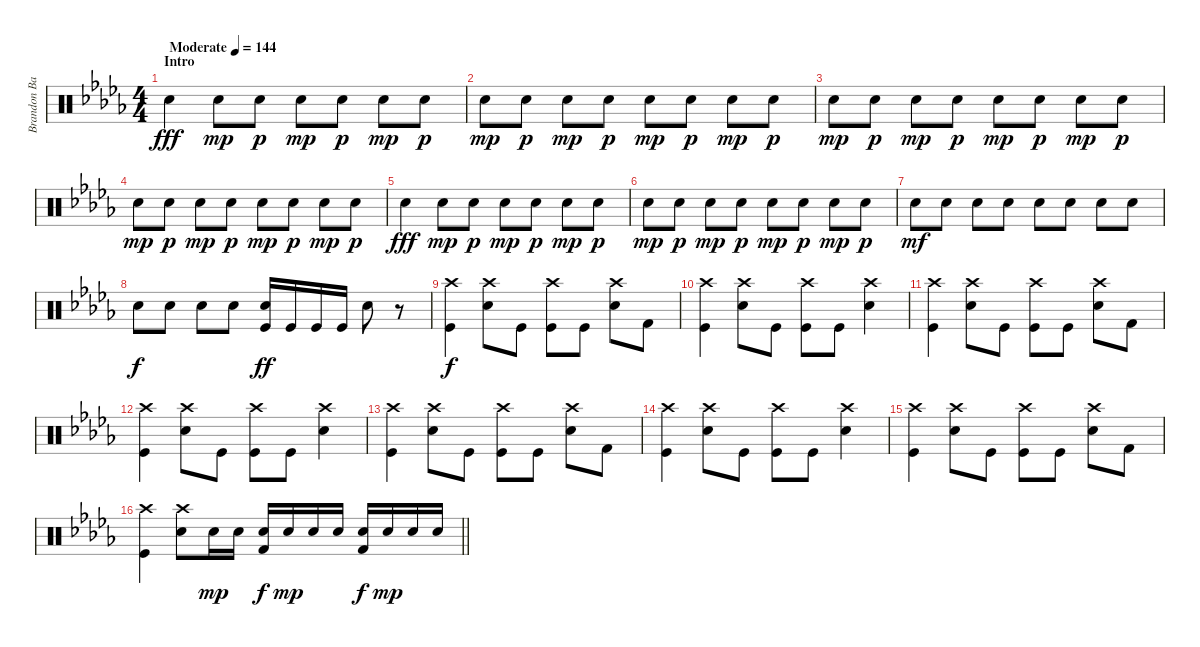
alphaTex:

\track ("Brandon Barnes - Drums" "Brandon Ba") {instrument percussion}
\staff {score}
\articulation defaults
\ts (4 4)
\section ("" "Intro")
\tempo (144 "Moderate")
\clef neutral
\ks db "Snare (hit) 2".4{dy fff} "Snare (hit) 2".8{dy mp} "Snare (hit) 2".8{dy p} "Snare (hit) 2".8{dy mp} "Snare (hit) 2".8{dy p} "Snare (hit) 2".8{dy mp} "Snare (hit) 2".8{dy p}
|
"Snare (hit) 2".8{dy mp} "Snare (hit) 2".8{dy p} "Snare (hit) 2".8{dy mp} "Snare (hit) 2".8{dy p} "Snare (hit) 2".8{dy mp} "Snare (hit) 2".8{dy p} "Snare (hit) 2".8{dy mp} "Snare (hit) 2".8{dy p} |
"Snare (hit) 2".8{dy mp} "Snare (hit) 2".8{dy p} "Snare (hit) 2".8{dy mp} "Snare (hit) 2".8{dy p} "Snare (hit) 2".8{dy mp} "Snare (hit) 2".8{dy p} "Snare (hit) 2".8{dy mp} "Snare (hit) 2".8{dy p} |
"Snare (hit) 2".8{dy mp} "Snare (hit) 2".8{dy p} "Snare (hit) 2".8{dy mp} "Snare (hit) 2".8{dy p} "Snare (hit) 2".8{dy mp} "Snare (hit) 2".8{dy p} "Snare (hit) 2".8{dy mp} "Snare (hit) 2".8{dy p} |
"Snare (hit) 2".4{dy fff} "Snare (hit) 2".8{dy mp} "Snare (hit) 2".8{dy p} "Snare (hit) 2".8{dy mp} "Snare (hit) 2".8{dy p} "Snare (hit) 2".8{dy mp} "Snare (hit) 2".8{dy p} |
"Snare (hit) 2".8{dy mp} "Snare (hit) 2".8{dy p} "Snare (hit) 2".8{dy mp} "Snare (hit) 2".8{dy p} "Snare (hit) 2".8{dy mp} "Snare (hit) 2".8{dy p} "Snare (hit) 2".8{dy mp} "Snare (hit) 2".8{dy p} |
"Snare (hit) 2".8{dy mf} "Snare (hit) 2".8 "Snare (hit) 2".8 "Snare (hit) 2".8 "Snare (hit) 2".8 "Snare (hit) 2".8 "Snare (hit) 2".8 "Snare (hit) 2".8 |
"Snare (hit) 2".8{dy f} "Snare (hit) 2".8 "Snare (hit) 2".8 "Snare (hit) 2".8 ("Snare (hit) 2" "Kick (hit)").16{dy ff} "Kick (hit)".16 "Kick (hit)".16 "Kick (hit)".16 "Snare (hit) 2".8 r.8 |
("Kick (hit)" "Crash high (hit)").4{dy f} ("Snare (hit) 2" "Crash high (hit)").8 "Kick (hit)".8 ("Kick (hit)" "Crash high (hit)").8 "Kick (hit)".8 ("Snare (hit) 2" "Crash high (hit)").8 "Kick (hit) 2".8 |
("Kick (hit)" "Crash high (hit)").4 ("Snare (hit) 2" "Crash high (hit)").8 "Kick (hit)".8 ("Kick (hit)" "Crash high (hit)").8 "Kick (hit)".8 ("Snare (hit) 2" "Crash high (hit)").4 |
("Kick (hit)" "Crash high (hit)").4 ("Snare (hit) 2" "Crash high (hit)").8 "Kick (hit)".8 ("Kick (hit)" "Crash high (hit)").8 "Kick (hit)".8 ("Snare (hit) 2" "Crash high (hit)").8 "Kick (hit) 2".8 |
("Kick (hit)" "Crash high (hit)").4 ("Snare (hit) 2" "Crash high (hit)").8 "Kick (hit)".8 ("Kick (hit)" "Crash high (hit)").8 "Kick (hit)".8 ("Snare (hit) 2" "Crash high (hit)").4 |
("Kick (hit)" "Crash high (hit)").4 ("Snare (hit) 2" "Crash high (hit)").8 "Kick (hit)".8 ("Kick (hit)" "Crash high (hit)").8 "Kick (hit)".8 ("Snare (hit) 2" "Crash high (hit)").8 "Kick (hit) 2".8 |
("Kick (hit)" "Crash high (hit)").4 ("Snare (hit) 2" "Crash high (hit)").8 "Kick (hit)".8 ("Kick (hit)" "Crash high (hit)").8 "Kick (hit)".8 ("Snare (hit) 2" "Crash high (hit)").4 |
("Kick (hit)" "Crash high (hit)").4 ("Snare (hit) 2" "Crash high (hit)").8 "Kick (hit)".8 ("Kick (hit)" "Crash high (hit)").8 "Kick (hit)".8 ("Snare (hit) 2" "Crash high (hit)").8 "Kick (hit) 2".8 |
\barLineRight lightlight
("Kick (hit)" "Crash high (hit)").4 ("Snare (hit) 2" "Crash high (hit)").8 "Snare (hit) 2".16{dy mp} "Snare (hit) 2".16 ("Snare (hit) 2" "Kick (hit) 2").16{dy f} "Snare (hit) 2".16{dy mp} "Snare (hit) 2".16 "Snare (hit) 2".16 ("Snare (hit) 2" "Kick (hit) 2").16{dy f} "Snare (hit) 2".16{dy mp} "Snare (hit) 2".16 "Snare (hit) 2".16
